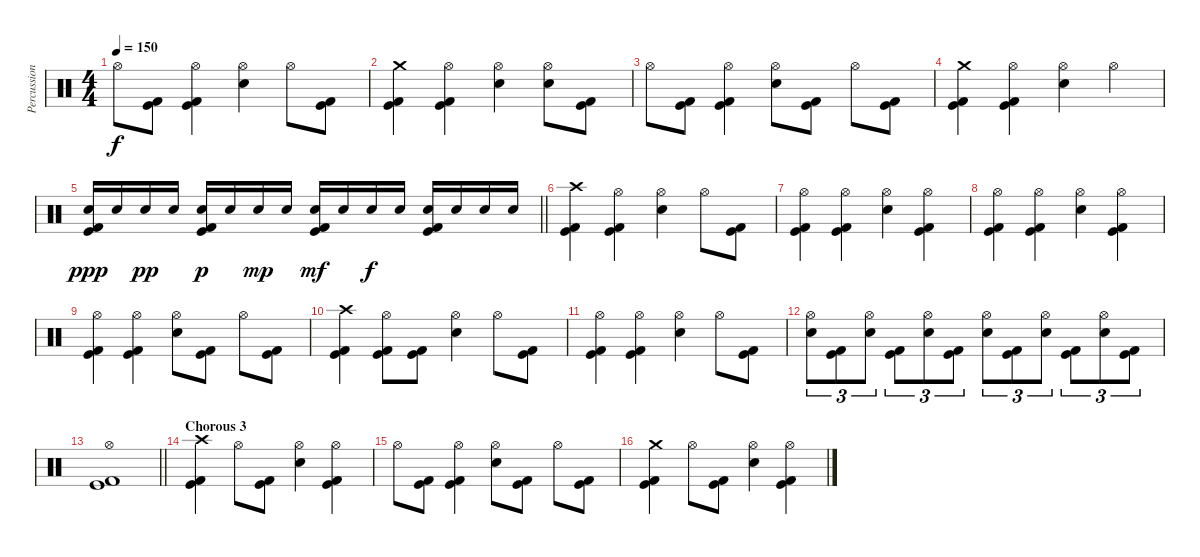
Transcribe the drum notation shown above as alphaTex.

\track ("Percussion" "Percussion") {instrument percussion}
\staff {score}
\articulation defaults
\ts (4 4)
\tempo 150
\clef neutral
\ks c "Hi-Hat (open)".8{dy f}
("Kick (hit)" "Kick (hit) 2").8 ("Hi-Hat (open)" "Kick (hit)" "Kick (hit) 2").4 ("Hi-Hat (open)" "Electric Snare (hit)").4 "Hi-Hat (open)".8 ("Kick (hit)" "Kick (hit) 2").8 |
("Crash medium (hit)" "Kick (hit)" "Kick (hit) 2").4 ("Hi-Hat (open)" "Kick (hit)" "Kick (hit) 2").4 ("Hi-Hat (open)" "Electric Snare (hit)").4 ("Hi-Hat (open)" "Electric Snare (hit)").8 ("Kick (hit)" "Kick (hit) 2").8 |
"Hi-Hat (open)".8 ("Kick (hit)" "Kick (hit) 2").8 ("Hi-Hat (open)" "Kick (hit)" "Kick (hit) 2").4 ("Hi-Hat (open)" "Electric Snare (hit)").8 ("Kick (hit)" "Kick (hit) 2").8 "Hi-Hat (open)".8 ("Kick (hit)" "Kick (hit) 2").8 |
("Crash medium (hit)" "Kick (hit)" "Kick (hit) 2").4 ("Hi-Hat (open)" "Kick (hit)" "Kick (hit) 2").4 ("Hi-Hat (open)" "Electric Snare (hit)").4 "Hi-Hat (open)".4 |
\barLineRight lightlight
("Electric Snare (hit)" "Kick (hit)" "Kick (hit) 2").16{dy ppp} "Electric Snare (hit)".16 "Electric Snare (hit)".16{dy pp} "Electric Snare (hit)".16 ("Electric Snare (hit)" "Kick (hit)" "Kick (hit) 2").16{dy p} "Electric Snare (hit)".16 "Electric Snare (hit)".16{dy mp} "Electric Snare (hit)".16 ("Electric Snare (hit)" "Kick (hit)" "Kick (hit) 2").16{dy mf} "Electric Snare (hit)".16 "Electric Snare (hit)".16{dy f} "Electric Snare (hit)".16 ("Electric Snare (hit)" "Kick (hit)" "Kick (hit) 2").16 "Electric Snare (hit)".16 "Electric Snare (hit)".16 "Electric Snare (hit)".16 |
\section ("" "")
("Crash high (hit)" "Kick (hit)" "Kick (hit) 2").4 ("Hi-Hat (open)" "Kick (hit)" "Kick (hit) 2").4 ("Hi-Hat (open)" "Electric Snare (hit)").4 "Hi-Hat (open)".8 ("Kick (hit)" "Kick (hit) 2").8 |
("Hi-Hat (open)" "Kick (hit)" "Kick (hit) 2").4 ("Hi-Hat (open)" "Kick (hit)" "Kick (hit) 2").4 ("Hi-Hat (open)" "Electric Snare (hit)").4 ("Hi-Hat (open)" "Kick (hit)" "Kick (hit) 2").4 |
("Hi-Hat (open)" "Kick (hit)" "Kick (hit) 2").4 ("Hi-Hat (open)" "Kick (hit)" "Kick (hit) 2").4 ("Hi-Hat (open)" "Electric Snare (hit)").4 ("Hi-Hat (open)" "Kick (hit)" "Kick (hit) 2").4 |
("Hi-Hat (open)" "Kick (hit)" "Kick (hit) 2").4 ("Hi-Hat (open)" "Kick (hit)" "Kick (hit) 2").4 ("Hi-Hat (open)" "Electric Snare (hit)").8 ("Kick (hit)" "Kick (hit) 2").8 "Hi-Hat (open)".8 ("Kick (hit)" "Kick (hit) 2").8 |
("Crash high (hit)" "Kick (hit)" "Kick (hit) 2").4 ("Hi-Hat (open)" "Kick (hit)" "Kick (hit) 2").8 ("Kick (hit)" "Kick (hit) 2").8 ("Hi-Hat (open)" "Electric Snare (hit)").4 "Hi-Hat (open)".8 ("Kick (hit)" "Kick (hit) 2").8 |
("Hi-Hat (open)" "Kick (hit)" "Kick (hit) 2").4 ("Hi-Hat (open)" "Kick (hit)" "Kick (hit) 2").4 ("Hi-Hat (open)" "Electric Snare (hit)").4 "Hi-Hat (open)".8 ("Kick (hit)" "Kick (hit) 2").8 |
("Hi-Hat (open)" "Electric Snare (hit)").8{tu (3 2)} ("Kick (hit)" "Kick (hit) 2").8{tu (3 2)} ("Hi-Hat (open)" "Electric Snare (hit)").8{tu (3 2)} ("Kick (hit)" "Kick (hit) 2").8{tu (3 2)} ("Hi-Hat (open)" "Electric Snare (hit)").8{tu (3 2)} ("Kick (hit)" "Kick (hit) 2").8{tu (3 2)} ("Hi-Hat (open)" "Electric Snare (hit)").8{tu (3 2)} ("Kick (hit)" "Kick (hit) 2").8{tu (3 2)} ("Hi-Hat (open)" "Electric Snare (hit)").8{tu (3 2)} ("Kick (hit)" "Kick (hit) 2").8{tu (3 2)} ("Hi-Hat (open)" "Electric Snare (hit)").8{tu (3 2)} ("Kick (hit)" "Kick (hit) 2").8{tu (3 2)} |
\barLineRight lightlight
("Hi-Hat (open)" "Kick (hit)" "Kick (hit) 2").1 |
\section ("" "Chorous 3")
("Crash high (hit)" "Kick (hit)" "Kick (hit) 2").4 "Hi-Hat (open)".8 ("Kick (hit)" "Kick (hit) 2").8 ("Hi-Hat (open)" "Electric Snare (hit)").4 ("Hi-Hat (open)" "Kick (hit)" "Kick (hit) 2").4 |
"Hi-Hat (open)".8 ("Kick (hit)" "Kick (hit) 2").8 ("Hi-Hat (open)" "Kick (hit)" "Kick (hit) 2").4 ("Hi-Hat (open)" "Electric Snare (hit)").8 ("Kick (hit)" "Kick (hit) 2").8 "Hi-Hat (open)".8 ("Kick (hit)" "Kick (hit) 2").8 |
("Crash medium (hit)" "Kick (hit)" "Kick (hit) 2").4 "Hi-Hat (open)".8 ("Kick (hit)" "Kick (hit) 2").8 ("Hi-Hat (open)" "Electric Snare (hit)").4 ("Hi-Hat (open)" "Kick (hit)" "Kick (hit) 2").4
